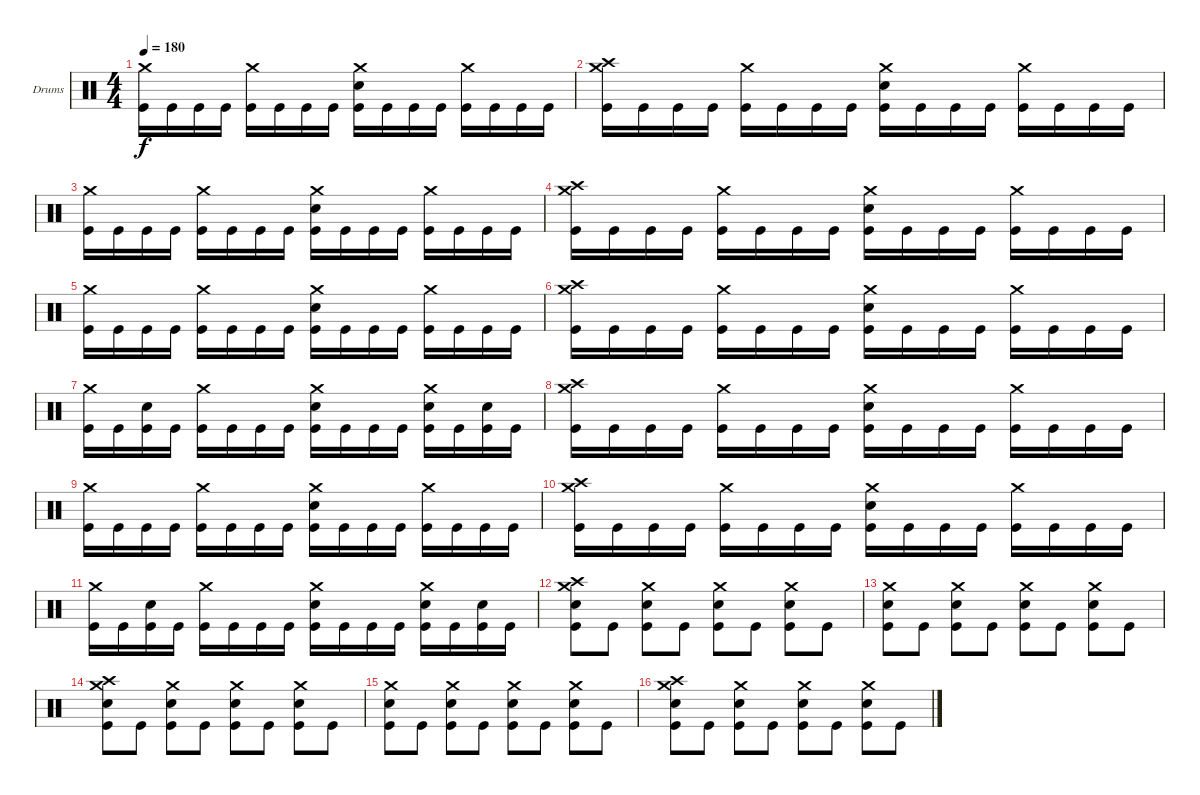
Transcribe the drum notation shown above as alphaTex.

\bracketExtendMode groupsimilarinstruments
\firstSystemTrackNameOrientation horizontal
\otherSystemsTrackNameOrientation horizontal
\track ("Drumkit" "Drums") {instrument percussion}
\staff {score}
\articulation defaults
\ts (4 4)
\tempo 180
\clef neutral
\ks c
("Crash medium (hit)" "Kick (hit)").16{dy f} "Kick (hit)".16 "Kick (hit)".16 "Kick (hit)".16 ("Crash medium (hit)" "Kick (hit)").16 "Kick (hit)".16 "Kick (hit)".16 "Kick (hit)".16 ("Crash medium (hit)" "Snare (hit) 2" "Kick (hit)").16 "Kick (hit)".16 "Kick (hit)".16 "Kick (hit)".16 ("Crash medium (hit)" "Kick (hit)").16 "Kick (hit)".16 "Kick (hit)".16 "Kick (hit)".16 |
("Crash high (hit)" "Crash medium (hit)" "Kick (hit)").16 "Kick (hit)".16 "Kick (hit)".16 "Kick (hit)".16 ("Crash medium (hit)" "Kick (hit)").16 "Kick (hit)".16 "Kick (hit)".16 "Kick (hit)".16 ("Crash medium (hit)" "Snare (hit) 2" "Kick (hit)").16 "Kick (hit)".16 "Kick (hit)".16 "Kick (hit)".16 ("Crash medium (hit)" "Kick (hit)").16 "Kick (hit)".16 "Kick (hit)".16 "Kick (hit)".16 |
("Crash medium (hit)" "Kick (hit)").16 "Kick (hit)".16 "Kick (hit)".16 "Kick (hit)".16 ("Crash medium (hit)" "Kick (hit)").16 "Kick (hit)".16 "Kick (hit)".16 "Kick (hit)".16 ("Crash medium (hit)" "Snare (hit) 2" "Kick (hit)").16 "Kick (hit)".16 "Kick (hit)".16 "Kick (hit)".16 ("Crash medium (hit)" "Kick (hit)").16 "Kick (hit)".16 "Kick (hit)".16 "Kick (hit)".16 |
("Crash high (hit)" "Crash medium (hit)" "Kick (hit)").16 "Kick (hit)".16 "Kick (hit)".16 "Kick (hit)".16 ("Crash medium (hit)" "Kick (hit)").16 "Kick (hit)".16 "Kick (hit)".16 "Kick (hit)".16 ("Crash medium (hit)" "Snare (hit) 2" "Kick (hit)").16 "Kick (hit)".16 "Kick (hit)".16 "Kick (hit)".16 ("Crash medium (hit)" "Kick (hit)").16 "Kick (hit)".16 "Kick (hit)".16 "Kick (hit)".16 |
("Crash medium (hit)" "Kick (hit)").16 "Kick (hit)".16 "Kick (hit)".16 "Kick (hit)".16 ("Crash medium (hit)" "Kick (hit)").16 "Kick (hit)".16 "Kick (hit)".16 "Kick (hit)".16 ("Crash medium (hit)" "Snare (hit) 2" "Kick (hit)").16 "Kick (hit)".16 "Kick (hit)".16 "Kick (hit)".16 ("Crash medium (hit)" "Kick (hit)").16 "Kick (hit)".16 "Kick (hit)".16 "Kick (hit)".16 |
("Crash high (hit)" "Crash medium (hit)" "Kick (hit)").16 "Kick (hit)".16 "Kick (hit)".16 "Kick (hit)".16 ("Crash medium (hit)" "Kick (hit)").16 "Kick (hit)".16 "Kick (hit)".16 "Kick (hit)".16 ("Crash medium (hit)" "Snare (hit) 2" "Kick (hit)").16 "Kick (hit)".16 "Kick (hit)".16 "Kick (hit)".16 ("Crash medium (hit)" "Kick (hit)").16 "Kick (hit)".16 "Kick (hit)".16 "Kick (hit)".16 |
("Crash medium (hit)" "Kick (hit)").16 "Kick (hit)".16 ("Snare (hit) 2" "Kick (hit)").16 "Kick (hit)".16 ("Crash medium (hit)" "Kick (hit)").16 "Kick (hit)".16 "Kick (hit)".16 "Kick (hit)".16 ("Crash medium (hit)" "Snare (hit) 2" "Kick (hit)").16 "Kick (hit)".16 "Kick (hit)".16 "Kick (hit)".16 ("Crash medium (hit)" "Snare (hit) 2" "Kick (hit)").16 "Kick (hit)".16 ("Snare (hit) 2" "Kick (hit)").16 "Kick (hit)".16 |
("Crash high (hit)" "Crash medium (hit)" "Kick (hit)").16 "Kick (hit)".16 "Kick (hit)".16 "Kick (hit)".16 ("Crash medium (hit)" "Kick (hit)").16 "Kick (hit)".16 "Kick (hit)".16 "Kick (hit)".16 ("Crash medium (hit)" "Snare (hit) 2" "Kick (hit)").16 "Kick (hit)".16 "Kick (hit)".16 "Kick (hit)".16 ("Crash medium (hit)" "Kick (hit)").16 "Kick (hit)".16 "Kick (hit)".16 "Kick (hit)".16 |
("Crash medium (hit)" "Kick (hit)").16 "Kick (hit)".16 "Kick (hit)".16 "Kick (hit)".16 ("Crash medium (hit)" "Kick (hit)").16 "Kick (hit)".16 "Kick (hit)".16 "Kick (hit)".16 ("Crash medium (hit)" "Snare (hit) 2" "Kick (hit)").16 "Kick (hit)".16 "Kick (hit)".16 "Kick (hit)".16 ("Crash medium (hit)" "Kick (hit)").16 "Kick (hit)".16 "Kick (hit)".16 "Kick (hit)".16 |
("Crash high (hit)" "Crash medium (hit)" "Kick (hit)").16 "Kick (hit)".16 "Kick (hit)".16 "Kick (hit)".16 ("Crash medium (hit)" "Kick (hit)").16 "Kick (hit)".16 "Kick (hit)".16 "Kick (hit)".16 ("Crash medium (hit)" "Snare (hit) 2" "Kick (hit)").16 "Kick (hit)".16 "Kick (hit)".16 "Kick (hit)".16 ("Crash medium (hit)" "Kick (hit)").16 "Kick (hit)".16 "Kick (hit)".16 "Kick (hit)".16 |
("Crash medium (hit)" "Kick (hit)").16 "Kick (hit)".16 ("Snare (hit) 2" "Kick (hit)").16 "Kick (hit)".16 ("Crash medium (hit)" "Kick (hit)").16 "Kick (hit)".16 "Kick (hit)".16 "Kick (hit)".16 ("Crash medium (hit)" "Snare (hit) 2" "Kick (hit)").16 "Kick (hit)".16 "Kick (hit)".16 "Kick (hit)".16 ("Crash medium (hit)" "Snare (hit) 2" "Kick (hit)").16 "Kick (hit)".16 ("Snare (hit) 2" "Kick (hit)").16 "Kick (hit)".16 |
("Crash high (hit)" "Crash medium (hit)" "Snare (hit) 2" "Kick (hit)").8 "Kick (hit)".8 ("Crash medium (hit)" "Snare (hit) 2" "Kick (hit)").8 "Kick (hit)".8 ("Crash medium (hit)" "Snare (hit) 2" "Kick (hit)").8 "Kick (hit)".8 ("Crash medium (hit)" "Snare (hit) 2" "Kick (hit)").8 "Kick (hit)".8 |
("Crash medium (hit)" "Snare (hit) 2" "Kick (hit)").8 "Kick (hit)".8 ("Crash medium (hit)" "Snare (hit) 2" "Kick (hit)").8 "Kick (hit)".8 ("Crash medium (hit)" "Snare (hit) 2" "Kick (hit)").8 "Kick (hit)".8 ("Crash medium (hit)" "Snare (hit) 2" "Kick (hit)").8 "Kick (hit)".8 |
("Crash high (hit)" "Crash medium (hit)" "Snare (hit) 2" "Kick (hit)").8 "Kick (hit)".8 ("Crash medium (hit)" "Snare (hit) 2" "Kick (hit)").8 "Kick (hit)".8 ("Crash medium (hit)" "Snare (hit) 2" "Kick (hit)").8 "Kick (hit)".8 ("Crash medium (hit)" "Snare (hit) 2" "Kick (hit)").8 "Kick (hit)".8 |
("Crash medium (hit)" "Snare (hit) 2" "Kick (hit)").8 "Kick (hit)".8 ("Crash medium (hit)" "Snare (hit) 2" "Kick (hit)").8 "Kick (hit)".8 ("Crash medium (hit)" "Snare (hit) 2" "Kick (hit)").8 "Kick (hit)".8 ("Crash medium (hit)" "Snare (hit) 2" "Kick (hit)").8 "Kick (hit)".8 |
("Crash high (hit)" "Crash medium (hit)" "Snare (hit) 2" "Kick (hit)").8 "Kick (hit)".8 ("Crash medium (hit)" "Snare (hit) 2" "Kick (hit)").8 "Kick (hit)".8 ("Crash medium (hit)" "Snare (hit) 2" "Kick (hit)").8 "Kick (hit)".8 ("Crash medium (hit)" "Snare (hit) 2" "Kick (hit)").8 "Kick (hit)".8
